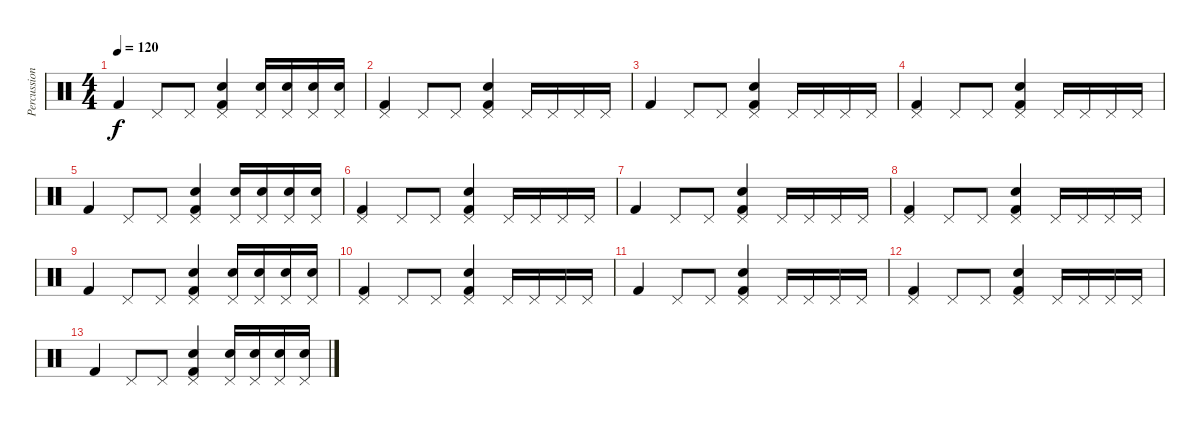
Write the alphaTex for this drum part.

\track ("Percussion" "Percussion") {instrument percussion}
\staff {score}
\articulation defaults
\ts (4 4)
\tempo 120
\clef neutral
\ks c "Kick (hit) 2".4{dy f} "Pedal Hi-Hat (hit)".8 "Pedal Hi-Hat (hit)".8
("Kick (hit) 2" "Pedal Hi-Hat (hit)" "Snare (hit) 2").4 ("Snare (hit) 2" "Pedal Hi-Hat (hit)").16 ("Snare (hit) 2" "Pedal Hi-Hat (hit)").16 ("Snare (hit) 2" "Pedal Hi-Hat (hit)").16 ("Snare (hit) 2" "Pedal Hi-Hat (hit)").16 |
("Kick (hit) 2" "Pedal Hi-Hat (hit)").4 "Pedal Hi-Hat (hit)".8 "Pedal Hi-Hat (hit)".8 ("Kick (hit) 2" "Pedal Hi-Hat (hit)" "Snare (hit) 2").4 "Pedal Hi-Hat (hit)".16 "Pedal Hi-Hat (hit)".16 "Pedal Hi-Hat (hit)".16 "Pedal Hi-Hat (hit)".16 |
"Kick (hit) 2".4 "Pedal Hi-Hat (hit)".8 "Pedal Hi-Hat (hit)".8 ("Kick (hit) 2" "Pedal Hi-Hat (hit)" "Snare (hit) 2").4 "Pedal Hi-Hat (hit)".16 "Pedal Hi-Hat (hit)".16 "Pedal Hi-Hat (hit)".16 "Pedal Hi-Hat (hit)".16 |
("Pedal Hi-Hat (hit)" "Kick (hit) 2").4 "Pedal Hi-Hat (hit)".8 "Pedal Hi-Hat (hit)".8 ("Kick (hit) 2" "Pedal Hi-Hat (hit)" "Snare (hit) 2").4 "Pedal Hi-Hat (hit)".16 "Pedal Hi-Hat (hit)".16 "Pedal Hi-Hat (hit)".16 "Pedal Hi-Hat (hit)".16 |
"Kick (hit) 2".4 "Pedal Hi-Hat (hit)".8 "Pedal Hi-Hat (hit)".8 ("Kick (hit) 2" "Pedal Hi-Hat (hit)" "Snare (hit) 2").4 ("Snare (hit) 2" "Pedal Hi-Hat (hit)").16 ("Snare (hit) 2" "Pedal Hi-Hat (hit)").16 ("Snare (hit) 2" "Pedal Hi-Hat (hit)").16 ("Snare (hit) 2" "Pedal Hi-Hat (hit)").16 |
("Kick (hit) 2" "Pedal Hi-Hat (hit)").4 "Pedal Hi-Hat (hit)".8 "Pedal Hi-Hat (hit)".8 ("Kick (hit) 2" "Pedal Hi-Hat (hit)" "Snare (hit) 2").4 "Pedal Hi-Hat (hit)".16 "Pedal Hi-Hat (hit)".16 "Pedal Hi-Hat (hit)".16 "Pedal Hi-Hat (hit)".16 |
"Kick (hit) 2".4 "Pedal Hi-Hat (hit)".8 "Pedal Hi-Hat (hit)".8 ("Kick (hit) 2" "Pedal Hi-Hat (hit)" "Snare (hit) 2").4 "Pedal Hi-Hat (hit)".16 "Pedal Hi-Hat (hit)".16 "Pedal Hi-Hat (hit)".16 "Pedal Hi-Hat (hit)".16 |
("Pedal Hi-Hat (hit)" "Kick (hit) 2").4 "Pedal Hi-Hat (hit)".8 "Pedal Hi-Hat (hit)".8 ("Kick (hit) 2" "Pedal Hi-Hat (hit)" "Snare (hit) 2").4 "Pedal Hi-Hat (hit)".16 "Pedal Hi-Hat (hit)".16 "Pedal Hi-Hat (hit)".16 "Pedal Hi-Hat (hit)".16 |
"Kick (hit) 2".4 "Pedal Hi-Hat (hit)".8 "Pedal Hi-Hat (hit)".8 ("Kick (hit) 2" "Pedal Hi-Hat (hit)" "Snare (hit) 2").4 ("Snare (hit) 2" "Pedal Hi-Hat (hit)").16 ("Snare (hit) 2" "Pedal Hi-Hat (hit)").16 ("Snare (hit) 2" "Pedal Hi-Hat (hit)").16 ("Snare (hit) 2" "Pedal Hi-Hat (hit)").16 |
("Kick (hit) 2" "Pedal Hi-Hat (hit)").4 "Pedal Hi-Hat (hit)".8 "Pedal Hi-Hat (hit)".8 ("Kick (hit) 2" "Pedal Hi-Hat (hit)" "Snare (hit) 2").4 "Pedal Hi-Hat (hit)".16 "Pedal Hi-Hat (hit)".16 "Pedal Hi-Hat (hit)".16 "Pedal Hi-Hat (hit)".16 |
"Kick (hit) 2".4 "Pedal Hi-Hat (hit)".8 "Pedal Hi-Hat (hit)".8 ("Kick (hit) 2" "Pedal Hi-Hat (hit)" "Snare (hit) 2").4 "Pedal Hi-Hat (hit)".16 "Pedal Hi-Hat (hit)".16 "Pedal Hi-Hat (hit)".16 "Pedal Hi-Hat (hit)".16 |
("Pedal Hi-Hat (hit)" "Kick (hit) 2").4 "Pedal Hi-Hat (hit)".8 "Pedal Hi-Hat (hit)".8 ("Kick (hit) 2" "Pedal Hi-Hat (hit)" "Snare (hit) 2").4 "Pedal Hi-Hat (hit)".16 "Pedal Hi-Hat (hit)".16 "Pedal Hi-Hat (hit)".16 "Pedal Hi-Hat (hit)".16 |
"Kick (hit) 2".4 "Pedal Hi-Hat (hit)".8 "Pedal Hi-Hat (hit)".8 ("Kick (hit) 2" "Pedal Hi-Hat (hit)" "Snare (hit) 2").4 ("Snare (hit) 2" "Pedal Hi-Hat (hit)").16 ("Snare (hit) 2" "Pedal Hi-Hat (hit)").16 ("Snare (hit) 2" "Pedal Hi-Hat (hit)").16 ("Snare (hit) 2" "Pedal Hi-Hat (hit)").16
